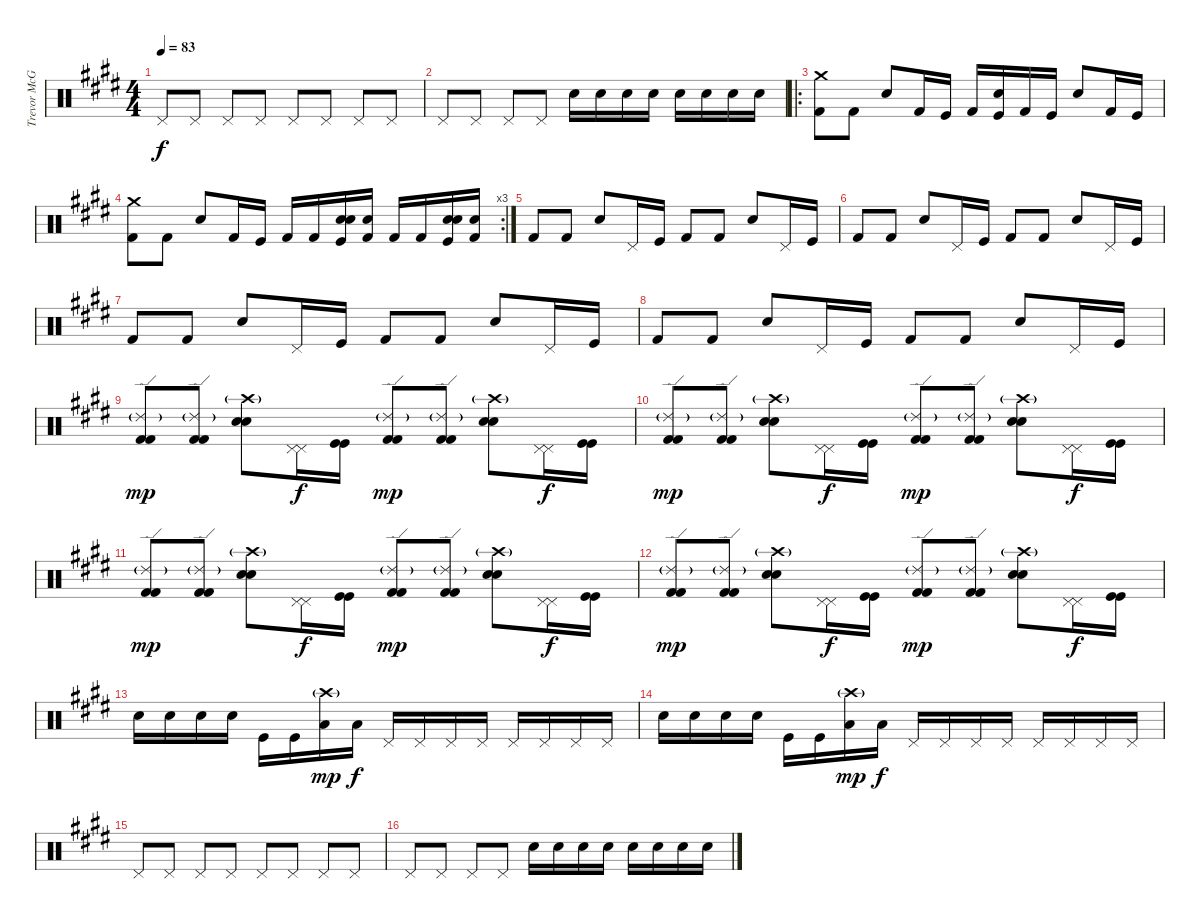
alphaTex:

\track ("Trevor McGregor - Drums" "Trevor McG") {instrument percussion}
\staff {score}
\articulation defaults
\ts (4 4)
\tempo 83
\clef neutral
\ks e "Pedal Hi-Hat (hit)".8{dy f} "Pedal Hi-Hat (hit)".8 "Pedal Hi-Hat (hit)".8 "Pedal Hi-Hat (hit)".8 "Pedal Hi-Hat (hit)".8 "Pedal Hi-Hat (hit)".8 "Pedal Hi-Hat (hit)".8 "Pedal Hi-Hat (hit)".8
|
\ks c#minor "Pedal Hi-Hat (hit)".8 "Pedal Hi-Hat (hit)".8 "Pedal Hi-Hat (hit)".8 "Pedal Hi-Hat (hit)".8 "Electric Snare (hit)".16 "Electric Snare (hit)".16 "Electric Snare (hit)".16 "Electric Snare (hit)".16 "Electric Snare (hit)".16 "Electric Snare (hit)".16 "Electric Snare (hit)".16 "Electric Snare (hit)".16
|
\ro
("Crash medium (hit)" "Kick (hit) 2").8 "Kick (hit) 2".8 "Electric Snare (hit)".8 "Kick (hit) 2".16 "Kick (hit)".16 "Kick (hit) 2".16 ("Electric Snare (hit)" "Kick (hit)").16 "Kick (hit) 2".16 "Kick (hit)".16 "Electric Snare (hit)".8 "Kick (hit) 2".16 "Kick (hit)".16 |
\rc 3
("Crash medium (hit)" "Kick (hit) 2").8 "Kick (hit) 2".8 "Electric Snare (hit)".8 "Kick (hit) 2".16 "Kick (hit)".16 "Kick (hit) 2".16 "Kick (hit) 2".16 ("Snare (hit) 2" "Electric Snare (hit)" "Kick (hit)").16 ("Snare (hit) 2" "Kick (hit) 2").16 "Kick (hit) 2".16 "Kick (hit) 2".16 ("Snare (hit) 2" "Electric Snare (hit)" "Kick (hit)").16 ("Snare (hit) 2" "Kick (hit) 2").16 |
"Kick (hit) 2".8 "Kick (hit) 2".8 "Electric Snare (hit)".8 "Pedal Hi-Hat (hit)".16 "Kick (hit)".16 "Kick (hit) 2".8 "Kick (hit) 2".8 "Electric Snare (hit)".8 "Pedal Hi-Hat (hit)".16 "Kick (hit)".16 |
"Kick (hit) 2".8 "Kick (hit) 2".8 "Electric Snare (hit)".8 "Pedal Hi-Hat (hit)".16 "Kick (hit)".16 "Kick (hit) 2".8 "Kick (hit) 2".8 "Electric Snare (hit)".8 "Pedal Hi-Hat (hit)".16 "Kick (hit)".16 |
"Kick (hit) 2".8 "Kick (hit) 2".8 "Electric Snare (hit)".8 "Pedal Hi-Hat (hit)".16 "Kick (hit)".16 "Kick (hit) 2".8 "Kick (hit) 2".8 "Electric Snare (hit)".8 "Pedal Hi-Hat (hit)".16 "Kick (hit)".16 |
"Kick (hit) 2".8 "Kick (hit) 2".8 "Electric Snare (hit)".8 "Pedal Hi-Hat (hit)".16 "Kick (hit)".16 "Kick (hit) 2".8 "Kick (hit) 2".8 "Electric Snare (hit)".8 "Pedal Hi-Hat (hit)".16 "Kick (hit)".16 |
("Ride (edge) 2"{g} "Kick (hit) 2" "Kick (hit) 2").8{dy mp} ("Ride (edge) 2"{g} "Kick (hit) 2" "Kick (hit) 2").8 ("Crash high (hit)"{g} "Electric Snare (hit)" "Electric Snare (hit)").8 ("Pedal Hi-Hat (hit)" "Pedal Hi-Hat (hit)").16{dy f} ("Kick (hit)" "Kick (hit)").16 ("Ride (edge) 2"{g} "Kick (hit) 2" "Kick (hit) 2").8{dy mp} ("Ride (edge) 2"{g} "Kick (hit) 2" "Kick (hit) 2").8 ("Crash high (hit)"{g} "Electric Snare (hit)" "Electric Snare (hit)").8 ("Pedal Hi-Hat (hit)" "Pedal Hi-Hat (hit)").16{dy f} ("Kick (hit)" "Kick (hit)").16 |
("Ride (edge) 2"{g} "Kick (hit) 2" "Kick (hit) 2").8{dy mp} ("Ride (edge) 2"{g} "Kick (hit) 2" "Kick (hit) 2").8 ("Crash high (hit)"{g} "Electric Snare (hit)" "Electric Snare (hit)").8 ("Pedal Hi-Hat (hit)" "Pedal Hi-Hat (hit)").16{dy f} ("Kick (hit)" "Kick (hit)").16 ("Ride (edge) 2"{g} "Kick (hit) 2" "Kick (hit) 2").8{dy mp} ("Ride (edge) 2"{g} "Kick (hit) 2" "Kick (hit) 2").8 ("Crash high (hit)"{g} "Electric Snare (hit)" "Electric Snare (hit)").8 ("Pedal Hi-Hat (hit)" "Pedal Hi-Hat (hit)").16{dy f} ("Kick (hit)" "Kick (hit)").16 |
("Ride (edge) 2"{g} "Kick (hit) 2" "Kick (hit) 2").8{dy mp} ("Ride (edge) 2"{g} "Kick (hit) 2" "Kick (hit) 2").8 ("Crash high (hit)"{g} "Electric Snare (hit)" "Electric Snare (hit)").8 ("Pedal Hi-Hat (hit)" "Pedal Hi-Hat (hit)").16{dy f} ("Kick (hit)" "Kick (hit)").16 ("Ride (edge) 2"{g} "Kick (hit) 2" "Kick (hit) 2").8{dy mp} ("Ride (edge) 2"{g} "Kick (hit) 2" "Kick (hit) 2").8 ("Crash high (hit)"{g} "Electric Snare (hit)" "Electric Snare (hit)").8 ("Pedal Hi-Hat (hit)" "Pedal Hi-Hat (hit)").16{dy f} ("Kick (hit)" "Kick (hit)").16 |
("Ride (edge) 2"{g} "Kick (hit) 2" "Kick (hit) 2").8{dy mp} ("Ride (edge) 2"{g} "Kick (hit) 2" "Kick (hit) 2").8 ("Crash high (hit)"{g} "Electric Snare (hit)" "Electric Snare (hit)").8 ("Pedal Hi-Hat (hit)" "Pedal Hi-Hat (hit)").16{dy f} ("Kick (hit)" "Kick (hit)").16 ("Ride (edge) 2"{g} "Kick (hit) 2" "Kick (hit) 2").8{dy mp} ("Ride (edge) 2"{g} "Kick (hit) 2" "Kick (hit) 2").8 ("Crash high (hit)"{g} "Electric Snare (hit)" "Electric Snare (hit)").8 ("Pedal Hi-Hat (hit)" "Pedal Hi-Hat (hit)").16{dy f} ("Kick (hit)" "Kick (hit)").16 |
\ks e "Snare (hit) 2".16 "Snare (hit) 2".16 "Electric Snare (hit)".16 "Electric Snare (hit)".16 "Kick (hit)".16 "Kick (hit)".16
("Crash high (hit)"{g} "Low Tom (hit)").16{dy mp} "Low Tom (hit)".16{dy f} "Pedal Hi-Hat (hit)".16 "Pedal Hi-Hat (hit)".16 "Pedal Hi-Hat (hit)".16 "Pedal Hi-Hat (hit)".16 "Pedal Hi-Hat (hit)".16 "Pedal Hi-Hat (hit)".16 "Pedal Hi-Hat (hit)".16 "Pedal Hi-Hat (hit)".16 |
"Snare (hit) 2".16 "Snare (hit) 2".16 "Electric Snare (hit)".16 "Electric Snare (hit)".16 "Kick (hit)".16 "Kick (hit)".16 ("Crash high (hit)"{g} "Low Tom (hit)").16{dy mp} "Low Tom (hit)".16{dy f} "Pedal Hi-Hat (hit)".16 "Pedal Hi-Hat (hit)".16 "Pedal Hi-Hat (hit)".16 "Pedal Hi-Hat (hit)".16 "Pedal Hi-Hat (hit)".16 "Pedal Hi-Hat (hit)".16 "Pedal Hi-Hat (hit)".16 "Pedal Hi-Hat (hit)".16 |
"Pedal Hi-Hat (hit)".8 "Pedal Hi-Hat (hit)".8 "Pedal Hi-Hat (hit)".8 "Pedal Hi-Hat (hit)".8 "Pedal Hi-Hat (hit)".8 "Pedal Hi-Hat (hit)".8 "Pedal Hi-Hat (hit)".8 "Pedal Hi-Hat (hit)".8 |
\ks c#minor "Pedal Hi-Hat (hit)".8 "Pedal Hi-Hat (hit)".8 "Pedal Hi-Hat (hit)".8 "Pedal Hi-Hat (hit)".8 "Electric Snare (hit)".16 "Electric Snare (hit)".16 "Electric Snare (hit)".16 "Electric Snare (hit)".16 "Electric Snare (hit)".16 "Electric Snare (hit)".16 "Electric Snare (hit)".16 "Electric Snare (hit)".16
